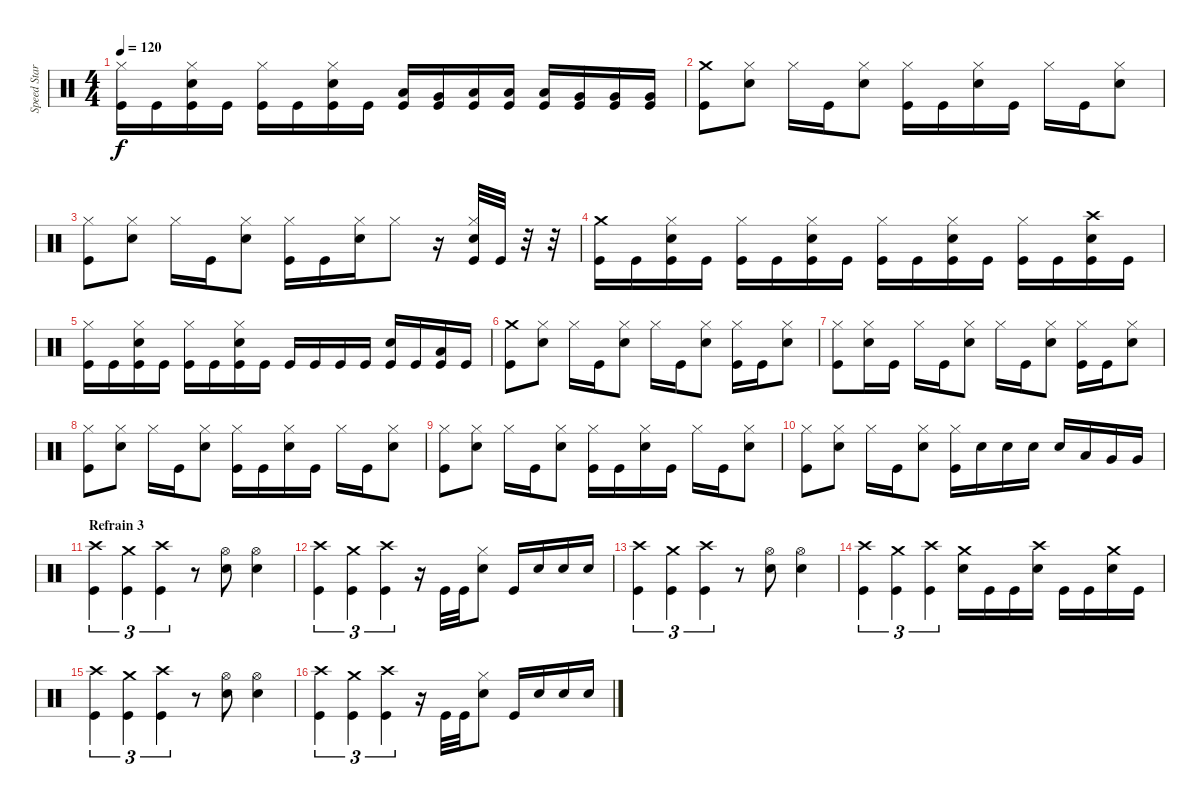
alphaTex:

\track ("Speed Star" "Speed Star") {instrument percussion}
\staff {score}
\articulation defaults
\ts (4 4)
\tempo 120
\clef neutral
\ks c
("Kick (hit)" "Hi-Hat (closed)").16{dy f} "Kick (hit)".16 ("Kick (hit)" "Snare (hit) 2" "Hi-Hat (closed)").16 "Kick (hit)".16 ("Kick (hit)" "Hi-Hat (closed)").16 "Kick (hit)".16 ("Kick (hit)" "Snare (hit) 2" "Hi-Hat (closed)").16 "Kick (hit)".16 ("Kick (hit)" "Low Floor Tom (hit)").16 ("Kick (hit)" "Very Low Tom (hit)").16 ("Kick (hit)" "Low Tom (hit)").16 ("Kick (hit)" "Low Tom (hit)").16 ("Kick (hit)" "Low Tom (hit)").16 ("Kick (hit)" "Very Low Tom (hit)").16 ("Kick (hit)" "Very Low Tom (hit)").16 ("Kick (hit)" "Very Low Tom (hit)").16 |
("Kick (hit)" "Crash medium (hit)").8 ("Snare (hit) 2" "Hi-Hat (closed)").8 "Hi-Hat (closed)".16 "Kick (hit)".16 ("Snare (hit) 2" "Hi-Hat (closed)").8 ("Kick (hit)" "Hi-Hat (closed)").16 "Kick (hit)".16 ("Snare (hit) 2" "Hi-Hat (closed)").16 "Kick (hit)".16 "Hi-Hat (closed)".16 "Kick (hit)".16 ("Snare (hit) 2" "Hi-Hat (closed)").8 |
("Kick (hit)" "Hi-Hat (closed)").8 ("Snare (hit) 2" "Hi-Hat (closed)").8 "Hi-Hat (closed)".16 "Kick (hit)".16 ("Snare (hit) 2" "Hi-Hat (closed)").8 ("Kick (hit)" "Hi-Hat (closed)").16 "Kick (hit)".16 ("Snare (hit) 2" "Hi-Hat (closed)").16 "Hi-Hat (closed)".8 r.16 ("Kick (hit)" "Snare (hit) 2" "Hi-Hat (closed)").32 "Kick (hit)".32 r.32 r.32 |
("Kick (hit)" "Crash medium (hit)").16 "Kick (hit)".16 ("Kick (hit)" "Snare (hit) 2" "Hi-Hat (closed)").16 "Kick (hit)".16 ("Kick (hit)" "Hi-Hat (closed)").16 "Kick (hit)".16 ("Kick (hit)" "Snare (hit) 2" "Hi-Hat (closed)").16 "Kick (hit)".16 ("Kick (hit)" "Hi-Hat (closed)").16 "Kick (hit)".16 ("Kick (hit)" "Snare (hit) 2" "Hi-Hat (closed)").16 "Kick (hit)".16 ("Kick (hit)" "Hi-Hat (closed)").16 "Kick (hit)".16 ("Kick (hit)" "Snare (hit) 2" "Crash high (hit)").16 "Kick (hit)".16 |
("Kick (hit)" "Hi-Hat (closed)").16 "Kick (hit)".16 ("Kick (hit)" "Snare (hit) 2" "Hi-Hat (closed)").16 "Kick (hit)".16 ("Kick (hit)" "Hi-Hat (closed)").16 "Kick (hit)".16 ("Kick (hit)" "Snare (hit) 2" "Hi-Hat (closed)").16 "Kick (hit)".16 "Kick (hit)".16 "Kick (hit)".16 "Kick (hit)".16 "Kick (hit)".16 ("Kick (hit)" "Snare (hit) 2").16 "Kick (hit)".16 ("Kick (hit)" "Low Floor Tom (hit)").16 "Kick (hit)".16 |
("Kick (hit)" "Crash medium (hit)").8 ("Snare (hit) 2" "Hi-Hat (closed)").8 "Hi-Hat (closed)".16 "Kick (hit)".16 ("Snare (hit) 2" "Hi-Hat (closed)").8 "Hi-Hat (closed)".16 "Kick (hit)".16 ("Snare (hit) 2" "Hi-Hat (closed)").8 ("Kick (hit)" "Hi-Hat (closed)").16 "Kick (hit)".16 ("Snare (hit) 2" "Hi-Hat (closed)").8 |
("Kick (hit)" "Hi-Hat (closed)").8 ("Snare (hit) 2" "Hi-Hat (closed)").16 "Kick (hit)".16 "Hi-Hat (closed)".16 "Kick (hit)".16 ("Snare (hit) 2" "Hi-Hat (closed)").8 "Hi-Hat (closed)".16 "Kick (hit)".16 ("Snare (hit) 2" "Hi-Hat (closed)").8 ("Kick (hit)" "Hi-Hat (closed)").16 "Kick (hit)".16 ("Snare (hit) 2" "Hi-Hat (closed)").8 |
("Kick (hit)" "Hi-Hat (closed)").8 ("Snare (hit) 2" "Hi-Hat (closed)").8 "Hi-Hat (closed)".16 "Kick (hit)".16 ("Snare (hit) 2" "Hi-Hat (closed)").8 ("Kick (hit)" "Hi-Hat (closed)").16 "Kick (hit)".16 ("Snare (hit) 2" "Hi-Hat (closed)").16 "Kick (hit)".16 "Hi-Hat (closed)".16 "Kick (hit)".16 ("Snare (hit) 2" "Hi-Hat (closed)").8 |
("Kick (hit)" "Hi-Hat (closed)").8 ("Snare (hit) 2" "Hi-Hat (closed)").8 "Hi-Hat (closed)".16 "Kick (hit)".16 ("Snare (hit) 2" "Hi-Hat (closed)").8 ("Kick (hit)" "Hi-Hat (closed)").16 "Kick (hit)".16 ("Snare (hit) 2" "Hi-Hat (closed)").16 "Kick (hit)".16 "Hi-Hat (closed)".16 "Kick (hit)".16 ("Snare (hit) 2" "Hi-Hat (closed)").8 |
("Kick (hit)" "Hi-Hat (closed)").8 ("Snare (hit) 2" "Hi-Hat (closed)").8 "Hi-Hat (closed)".16 "Kick (hit)".16 ("Snare (hit) 2" "Hi-Hat (closed)").8 ("Kick (hit)" "Hi-Hat (closed)").16 "Snare (hit) 2".16 "Snare (hit) 2".16 "Snare (hit) 2".16 "Snare (hit) 2".16 "Low Floor Tom (hit)".16 "Very Low Tom (hit)".16 "Very Low Tom (hit)".16 |
\section ("" "Refrain 3")
("Kick (hit)" "Crash high (hit)").4{tu (3 2)} ("Kick (hit)" "Crash medium (hit)").4{tu (3 2)} ("Kick (hit)" "Crash high (hit)").4{tu (3 2)} r.8 ("Snare (hit) 2" "Hi-Hat (open)").8 ("Snare (hit) 2" "Hi-Hat (open)").4 |
("Kick (hit)" "Crash high (hit)").4{tu (3 2)} ("Kick (hit)" "Crash medium (hit)").4{tu (3 2)} ("Kick (hit)" "Crash high (hit)").4{tu (3 2)} r.16 "Kick (hit)".32 "Kick (hit)".32 ("Snare (hit) 2" "Hi-Hat (closed)").8 "Kick (hit)".16 "Snare (hit) 2".16 "Snare (hit) 2".16 "Snare (hit) 2".16 |
("Kick (hit)" "Crash high (hit)").4{tu (3 2)} ("Kick (hit)" "Crash medium (hit)").4{tu (3 2)} ("Kick (hit)" "Crash high (hit)").4{tu (3 2)} r.8 ("Snare (hit) 2" "Hi-Hat (open)").8 ("Snare (hit) 2" "Hi-Hat (open)").4 |
("Kick (hit)" "Crash high (hit)").4{tu (3 2)} ("Kick (hit)" "Crash medium (hit)").4{tu (3 2)} ("Kick (hit)" "Crash high (hit)").4{tu (3 2)} ("Snare (hit) 2" "Crash medium (hit)").16 "Kick (hit)".16 "Kick (hit)".16 ("Snare (hit) 2" "Crash high (hit)").16 "Kick (hit)".16 "Kick (hit)".16 ("Snare (hit) 2" "Crash medium (hit)").16 "Kick (hit)".16 |
("Kick (hit)" "Crash high (hit)").4{tu (3 2)} ("Kick (hit)" "Crash medium (hit)").4{tu (3 2)} ("Kick (hit)" "Crash high (hit)").4{tu (3 2)} r.8 ("Snare (hit) 2" "Hi-Hat (open)").8 ("Snare (hit) 2" "Hi-Hat (open)").4 |
("Kick (hit)" "Crash high (hit)").4{tu (3 2)} ("Kick (hit)" "Crash medium (hit)").4{tu (3 2)} ("Kick (hit)" "Crash high (hit)").4{tu (3 2)} r.16 "Kick (hit)".32 "Kick (hit)".32 ("Snare (hit) 2" "Hi-Hat (closed)").8 "Kick (hit)".16 "Snare (hit) 2".16 "Snare (hit) 2".16 "Snare (hit) 2".16
